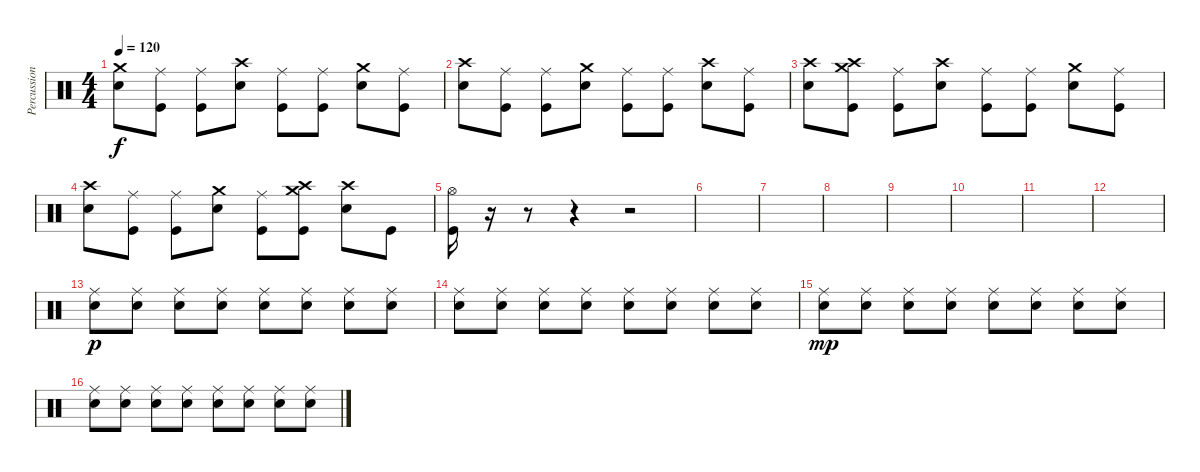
\track ("Percussion" "Percussion") {instrument percussion}
\staff {score}
\articulation defaults
\ts (4 4)
\tempo 120
\clef neutral
\ks c
("Crash medium (hit)" "Snare (hit) 2").8{dy f} ("Ride (middle)" "Kick (hit)").8 ("Ride (middle)" "Kick (hit)").8 ("Crash high (hit)" "Snare (hit) 2").8 ("Ride (middle)" "Kick (hit)").8 ("Ride (middle)" "Kick (hit)").8 ("Crash medium (hit)" "Snare (hit) 2").8 ("Ride (middle)" "Kick (hit)").8 |
("Crash high (hit)" "Snare (hit) 2").8 ("Ride (middle)" "Kick (hit)").8 ("Ride (middle)" "Kick (hit)").8 ("Crash medium (hit)" "Snare (hit) 2").8 ("Ride (middle)" "Kick (hit)").8 ("Ride (middle)" "Kick (hit)").8 ("Crash high (hit)" "Snare (hit) 2").8 ("Ride (middle)" "Kick (hit)").8 |
("Crash high (hit)" "Snare (hit) 2").8 ("Crash medium (hit)" "Crash high (hit)" "Kick (hit)").8 ("Ride (middle)" "Kick (hit)").8 ("Crash high (hit)" "Snare (hit) 2").8 ("Ride (middle)" "Kick (hit)").8 ("Ride (middle)" "Kick (hit)").8 ("Crash medium (hit)" "Snare (hit) 2").8 ("Ride (middle)" "Kick (hit)").8 |
("Crash high (hit)" "Snare (hit) 2").8 ("Ride (middle)" "Kick (hit)").8 ("Ride (middle)" "Kick (hit)").8 ("Crash medium (hit)" "Snare (hit) 2").8 ("Ride (middle)" "Kick (hit)").8 ("Crash medium (hit)" "Crash high (hit)" "Kick (hit)").8 ("Crash high (hit)" "Snare (hit) 2").8 "Kick (hit)".8 |
("Hi-Hat (open)" "Kick (hit)").16 r.16 r.8 r.4 r.2 |
|
|
|
|
|
|
|
("Ride (middle)" "Snare (hit) 2").8{dy p} ("Ride (middle)" "Snare (hit) 2").8 ("Ride (middle)" "Snare (hit) 2").8 ("Ride (middle)" "Snare (hit) 2").8 ("Ride (middle)" "Snare (hit) 2").8 ("Ride (middle)" "Snare (hit) 2").8 ("Ride (middle)" "Snare (hit) 2").8 ("Ride (middle)" "Snare (hit) 2").8 |
("Ride (middle)" "Snare (hit) 2").8 ("Ride (middle)" "Snare (hit) 2").8 ("Ride (middle)" "Snare (hit) 2").8 ("Ride (middle)" "Snare (hit) 2").8 ("Ride (middle)" "Snare (hit) 2").8 ("Ride (middle)" "Snare (hit) 2").8 ("Ride (middle)" "Snare (hit) 2").8 ("Ride (middle)" "Snare (hit) 2").8 |
("Ride (middle)" "Snare (hit) 2").8{dy mp} ("Ride (middle)" "Snare (hit) 2").8 ("Ride (middle)" "Snare (hit) 2").8 ("Ride (middle)" "Snare (hit) 2").8 ("Ride (middle)" "Snare (hit) 2").8 ("Ride (middle)" "Snare (hit) 2").8 ("Ride (middle)" "Snare (hit) 2").8 ("Ride (middle)" "Snare (hit) 2").8 |
("Ride (middle)" "Snare (hit) 2").8 ("Ride (middle)" "Snare (hit) 2").8 ("Ride (middle)" "Snare (hit) 2").8 ("Ride (middle)" "Snare (hit) 2").8 ("Ride (middle)" "Snare (hit) 2").8 ("Ride (middle)" "Snare (hit) 2").8 ("Ride (middle)" "Snare (hit) 2").8 ("Ride (middle)" "Snare (hit) 2").8
